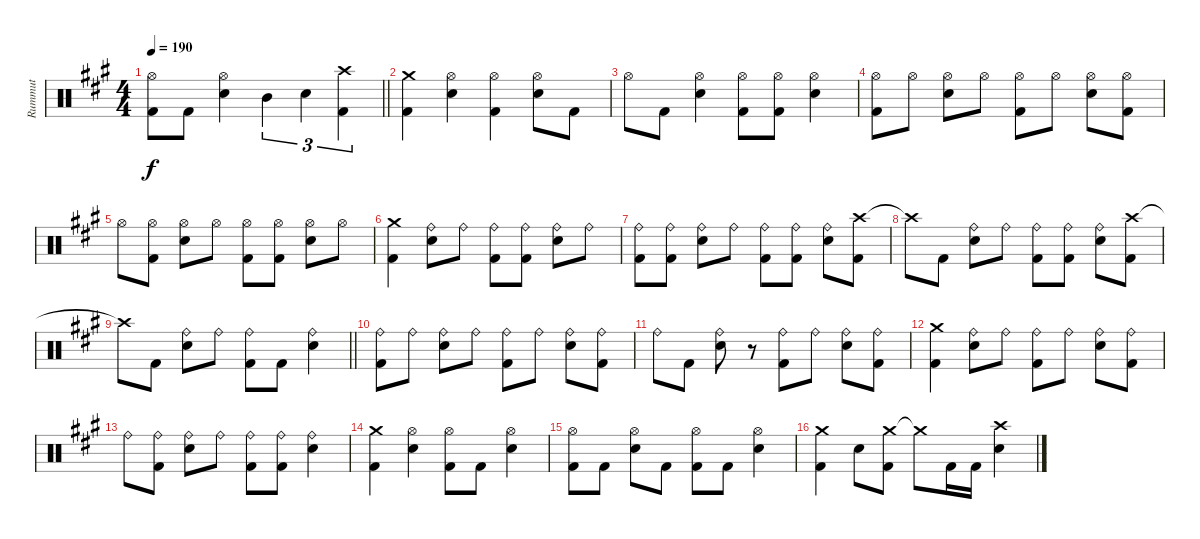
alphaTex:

\track ("Rummut" "Rummut") {instrument percussion}
\staff {score}
\articulation defaults
\ts (4 4)
\tempo 190
\clef neutral
\barLineRight lightlight
\ks a
("Hi-Hat (open)" "Kick (hit) 2").8{dy f} "Kick (hit) 2".8 ("Hi-Hat (open)" "Snare (hit) 2").4 "Mid Tom (hit)".4{tu (3 2)} "Snare (hit) 2".4{tu (3 2)} ("Crash high (hit)" "Kick (hit) 2").4{tu (3 2)} |
("Crash medium (hit)" "Kick (hit) 2").4 ("Hi-Hat (open)" "Snare (hit) 2").4 ("Hi-Hat (open)" "Kick (hit) 2").4 ("Hi-Hat (open)" "Snare (hit) 2").8 "Kick (hit) 2".8 |
"Hi-Hat (open)".8 "Kick (hit) 2".8 ("Hi-Hat (open)" "Snare (hit) 2").4 ("Hi-Hat (open)" "Kick (hit) 2").8 ("Hi-Hat (open)" "Kick (hit) 2").8 ("Hi-Hat (open)" "Snare (hit) 2").4 |
("Hi-Hat (open)" "Kick (hit) 2").8 "Hi-Hat (open)".8 ("Hi-Hat (open)" "Snare (hit) 2").8 "Hi-Hat (open)".8 ("Hi-Hat (open)" "Kick (hit) 2").8 "Hi-Hat (open)".8 ("Hi-Hat (open)" "Snare (hit) 2").8 ("Hi-Hat (open)" "Kick (hit) 2").8 |
"Hi-Hat (open)".8 ("Hi-Hat (open)" "Kick (hit) 2").8 ("Hi-Hat (open)" "Snare (hit) 2").8 "Hi-Hat (open)".8 ("Hi-Hat (open)" "Kick (hit) 2").8 ("Hi-Hat (open)" "Kick (hit) 2").8 ("Hi-Hat (open)" "Snare (hit) 2").8 "Hi-Hat (open)".8 |
("Crash medium (hit)" "Kick (hit) 2").4 ("Ride (bell)" "Snare (hit) 2").8 "Ride (bell)".8 ("Ride (bell)" "Kick (hit) 2").8 ("Ride (bell)" "Kick (hit) 2").8 ("Ride (bell)" "Snare (hit) 2").8 "Ride (bell)".8 |
("Ride (bell)" "Kick (hit) 2").8 ("Ride (bell)" "Kick (hit) 2").8 ("Ride (bell)" "Snare (hit) 2").8 "Ride (bell)".8 ("Ride (bell)" "Kick (hit) 2").8 ("Ride (bell)" "Kick (hit) 2").8 ("Ride (bell)" "Snare (hit) 2").8 ("Crash high (hit)" "Kick (hit) 2").8 |
"Crash high (hit)"{t}.8 "Kick (hit) 2".8 ("Ride (bell)" "Snare (hit) 2").8 "Ride (bell)".8 ("Ride (bell)" "Kick (hit) 2").8 ("Ride (bell)" "Kick (hit) 2").8 ("Ride (bell)" "Snare (hit) 2").8 ("Crash high (hit)" "Kick (hit) 2").8 |
\barLineRight lightlight "Crash high (hit)"{t}.8 "Kick (hit) 2".8
("Ride (bell)" "Snare (hit) 2").8 "Ride (bell)".8 ("Ride (bell)" "Kick (hit) 2").8 "Kick (hit) 2".8 ("Ride (bell)" "Snare (hit) 2").4 |
("Ride (bell)" "Kick (hit) 2").8 "Ride (bell)".8 ("Ride (bell)" "Snare (hit) 2").8 "Ride (bell)".8 ("Ride (bell)" "Kick (hit) 2").8 "Ride (bell)".8 ("Ride (bell)" "Snare (hit) 2").8 ("Ride (bell)" "Kick (hit) 2").8 |
"Ride (bell)".8 "Kick (hit) 2".8 ("Ride (bell)" "Snare (hit) 2").8 r.8 ("Ride (bell)" "Kick (hit) 2").8 "Ride (bell)".8 ("Ride (bell)" "Snare (hit) 2").8 ("Ride (bell)" "Kick (hit) 2").8 |
("Crash medium (hit)" "Kick (hit) 2").4 ("Ride (bell)" "Snare (hit) 2").8 "Ride (bell)".8 ("Ride (bell)" "Kick (hit) 2").8 "Ride (bell)".8 ("Ride (bell)" "Snare (hit) 2").8 ("Ride (bell)" "Kick (hit) 2").8 |
"Ride (bell)".8 ("Ride (bell)" "Kick (hit) 2").8 ("Ride (bell)" "Snare (hit) 2").8 "Ride (bell)".8 ("Ride (bell)" "Kick (hit) 2").8 ("Ride (bell)" "Kick (hit) 2").8 ("Ride (bell)" "Snare (hit) 2").4 |
("Crash medium (hit)" "Kick (hit) 2").4 ("Hi-Hat (open)" "Snare (hit) 2").4 ("Hi-Hat (open)" "Kick (hit) 2").8 "Kick (hit) 2".8 ("Hi-Hat (open)" "Snare (hit) 2").4 |
("Hi-Hat (open)" "Kick (hit) 2").8 "Kick (hit) 2".8 ("Hi-Hat (open)" "Snare (hit) 2").8 "Kick (hit) 2".8 ("Hi-Hat (open)" "Kick (hit) 2").8 "Kick (hit) 2".8 ("Hi-Hat (open)" "Snare (hit) 2").4 |
("Crash medium (hit)" "Kick (hit) 2").4 "Snare (hit) 2".8 ("Crash medium (hit)" "Kick (hit) 2").8 "Crash medium (hit)"{t}.8 "Kick (hit) 2".16 "Kick (hit) 2".16 ("Crash high (hit)" "Snare (hit) 2").4
